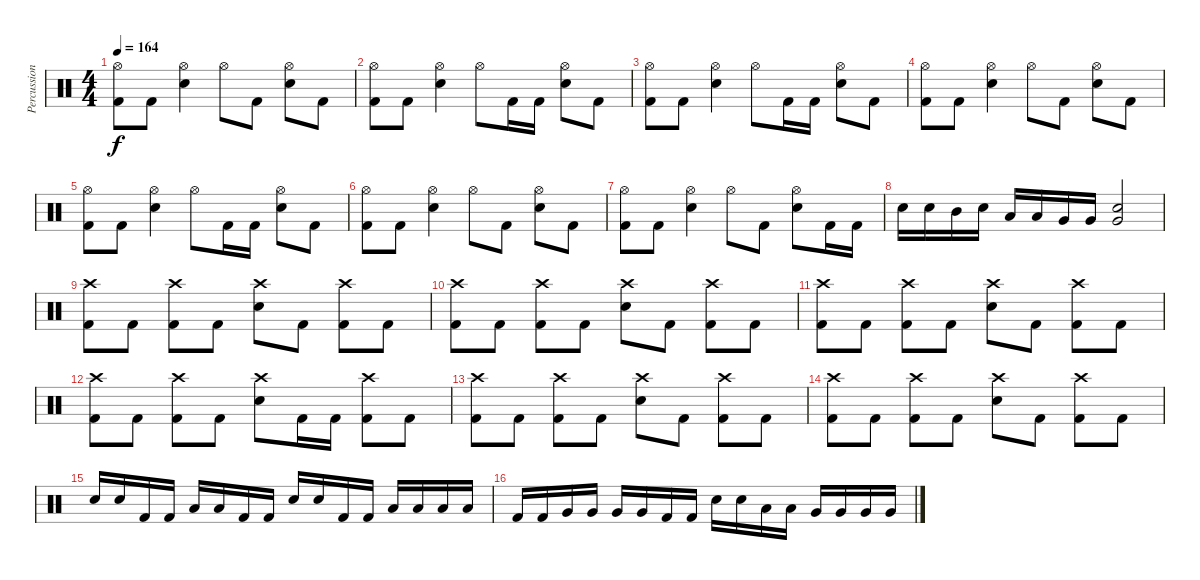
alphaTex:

\track ("Percussion" "Percussion") {instrument percussion}
\staff {score}
\articulation defaults
\ts (4 4)
\tempo 164
\clef neutral
\ks c
("Hi-Hat (open)" "Kick (hit) 2").8{dy f} "Kick (hit) 2".8 ("Hi-Hat (open)" "Electric Snare (hit)").4 "Hi-Hat (open)".8 "Kick (hit) 2".8 ("Hi-Hat (open)" "Electric Snare (hit)").8 "Kick (hit) 2".8 |
("Hi-Hat (open)" "Kick (hit) 2").8 "Kick (hit) 2".8 ("Hi-Hat (open)" "Electric Snare (hit)").4 "Hi-Hat (open)".8 "Kick (hit) 2".16 "Kick (hit) 2".16 ("Hi-Hat (open)" "Electric Snare (hit)").8 "Kick (hit) 2".8 |
("Hi-Hat (open)" "Kick (hit) 2").8 "Kick (hit) 2".8 ("Hi-Hat (open)" "Electric Snare (hit)").4 "Hi-Hat (open)".8 "Kick (hit) 2".16 "Kick (hit) 2".16 ("Hi-Hat (open)" "Electric Snare (hit)").8 "Kick (hit) 2".8 |
("Hi-Hat (open)" "Kick (hit) 2").8 "Kick (hit) 2".8 ("Hi-Hat (open)" "Electric Snare (hit)").4 "Hi-Hat (open)".8 "Kick (hit) 2".8 ("Hi-Hat (open)" "Electric Snare (hit)").8 "Kick (hit) 2".8 |
("Hi-Hat (open)" "Kick (hit) 2").8 "Kick (hit) 2".8 ("Hi-Hat (open)" "Electric Snare (hit)").4 "Hi-Hat (open)".8 "Kick (hit) 2".16 "Kick (hit) 2".16 ("Hi-Hat (open)" "Electric Snare (hit)").8 "Kick (hit) 2".8 |
("Hi-Hat (open)" "Kick (hit) 2").8 "Kick (hit) 2".8 ("Hi-Hat (open)" "Electric Snare (hit)").4 "Hi-Hat (open)".8 "Kick (hit) 2".8 ("Hi-Hat (open)" "Electric Snare (hit)").8 "Kick (hit) 2".8 |
("Hi-Hat (open)" "Kick (hit) 2").8 "Kick (hit) 2".8 ("Hi-Hat (open)" "Electric Snare (hit)").4 "Hi-Hat (open)".8 "Kick (hit) 2".8 ("Hi-Hat (open)" "Electric Snare (hit)").8 "Kick (hit) 2".16 "Kick (hit) 2".16 |
"Electric Snare (hit)".16 "Electric Snare (hit)".16 "Mid Tom (hit)".16 "Electric Snare (hit)".16 "Low Tom (hit)".16 "Low Tom (hit)".16 "Very Low Tom (hit)".16 "Very Low Tom (hit)".16 ("Very Low Tom (hit)" "Electric Snare (hit)").2 |
("Crash high (hit)" "Kick (hit) 2").8 "Kick (hit) 2".8 ("Crash high (hit)" "Kick (hit) 2").8 "Kick (hit) 2".8 ("Crash high (hit)" "Electric Snare (hit)").8 "Kick (hit) 2".8 ("Crash high (hit)" "Kick (hit) 2").8 "Kick (hit) 2".8 |
("Crash high (hit)" "Kick (hit) 2").8 "Kick (hit) 2".8 ("Crash high (hit)" "Kick (hit) 2").8 "Kick (hit) 2".8 ("Crash high (hit)" "Electric Snare (hit)").8 "Kick (hit) 2".8 ("Crash high (hit)" "Kick (hit) 2").8 "Kick (hit) 2".8 |
("Crash high (hit)" "Kick (hit) 2").8 "Kick (hit) 2".8 ("Crash high (hit)" "Kick (hit) 2").8 "Kick (hit) 2".8 ("Crash high (hit)" "Electric Snare (hit)").8 "Kick (hit) 2".8 ("Crash high (hit)" "Kick (hit) 2").8 "Kick (hit) 2".8 |
("Crash high (hit)" "Kick (hit) 2").8 "Kick (hit) 2".8 ("Crash high (hit)" "Kick (hit) 2").8 "Kick (hit) 2".8 ("Crash high (hit)" "Electric Snare (hit)").8 "Kick (hit) 2".16 "Kick (hit) 2".16 ("Crash high (hit)" "Kick (hit) 2").8 "Kick (hit) 2".8 |
("Crash high (hit)" "Kick (hit) 2").8 "Kick (hit) 2".8 ("Crash high (hit)" "Kick (hit) 2").8 "Kick (hit) 2".8 ("Crash high (hit)" "Electric Snare (hit)").8 "Kick (hit) 2".8 ("Crash high (hit)" "Kick (hit) 2").8 "Kick (hit) 2".8 |
("Crash high (hit)" "Kick (hit) 2").8 "Kick (hit) 2".8 ("Crash high (hit)" "Kick (hit) 2").8 "Kick (hit) 2".8 ("Crash high (hit)" "Electric Snare (hit)").8 "Kick (hit) 2".8 ("Crash high (hit)" "Kick (hit) 2").8 "Kick (hit) 2".8 |
"Electric Snare (hit)".16 "Electric Snare (hit)".16 "Kick (hit) 2".16 "Kick (hit) 2".16 "Low Tom (hit)".16 "Low Tom (hit)".16 "Kick (hit) 2".16 "Kick (hit) 2".16 "Electric Snare (hit)".16 "Electric Snare (hit)".16 "Kick (hit) 2".16 "Kick (hit) 2".16 "Low Tom (hit)".16 "Low Tom (hit)".16 "Low Tom (hit)".16 "Low Tom (hit)".16 |
"Kick (hit) 2".16 "Kick (hit) 2".16 "Very Low Tom (hit)".16 "Very Low Tom (hit)".16 "Very Low Tom (hit)".16 "Very Low Tom (hit)".16 "Kick (hit) 2".16 "Kick (hit) 2".16 "Electric Snare (hit)".16 "Electric Snare (hit)".16 "Low Tom (hit)".16 "Low Tom (hit)".16 "Very Low Tom (hit)".16 "Very Low Tom (hit)".16 "Very Low Tom (hit)".16 "Very Low Tom (hit)".16
